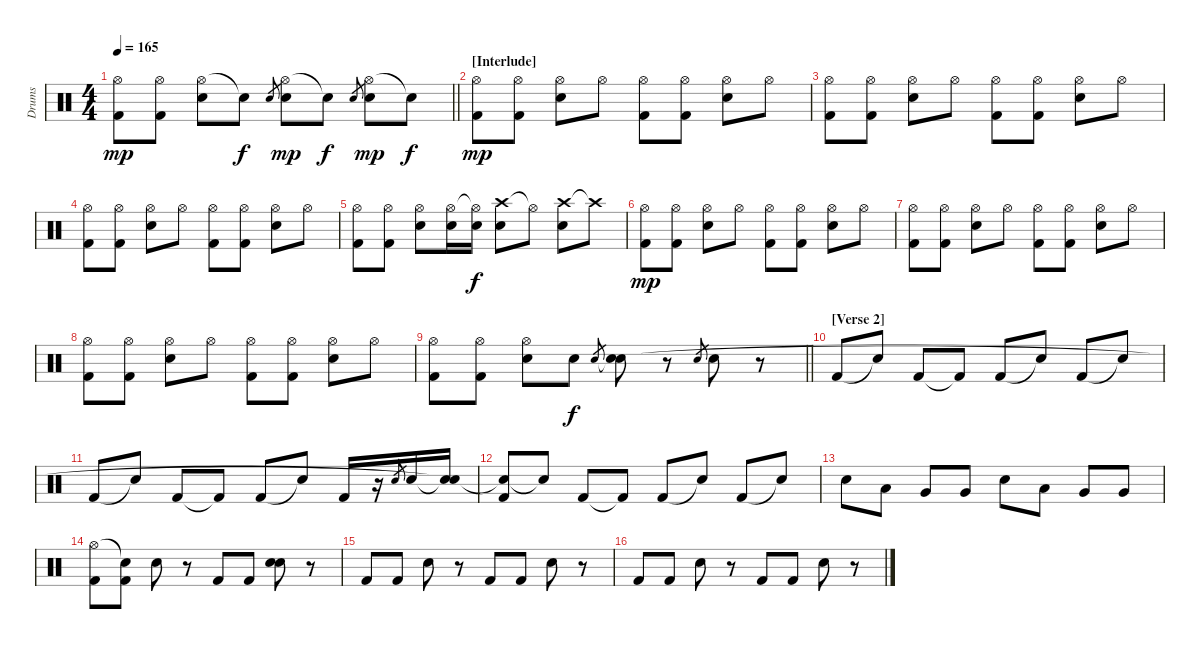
\track ("Drums" "Drums") {instrument percussion}
\staff {score}
\articulation defaults
\ts (4 4)
\tempo 165
\clef neutral
\barLineRight lightlight
\ks c
("Hi-Hat (open)" "Kick (hit) 2").8{dy mp} ("Hi-Hat (open)" "Kick (hit) 2").8 ("Hi-Hat (open)" "Electric Snare (hit)").8 "Snare (hit)"{t}.8{dy f} "Electric Snare (hit)".8{gr} ("Hi-Hat (open)" "Electric Snare (hit)").8{dy mp} "Snare (hit)"{t}.8{dy f} "Electric Snare (hit)".8{gr} ("Hi-Hat (open)" "Electric Snare (hit)").8{dy mp} "Snare (hit)"{t}.8{dy f} |
\section ("" "[Interlude]")
("Hi-Hat (open)" "Kick (hit) 2").8{dy mp} ("Hi-Hat (open)" "Kick (hit) 2").8 ("Hi-Hat (open)" "Electric Snare (hit)").8 "Hi-Hat (open)".8 ("Hi-Hat (open)" "Kick (hit) 2").8 ("Hi-Hat (open)" "Kick (hit) 2").8 ("Hi-Hat (open)" "Electric Snare (hit)").8 "Hi-Hat (open)".8 |
("Hi-Hat (open)" "Kick (hit) 2").8 ("Hi-Hat (open)" "Kick (hit) 2").8 ("Hi-Hat (open)" "Electric Snare (hit)").8 "Hi-Hat (open)".8 ("Hi-Hat (open)" "Kick (hit) 2").8 ("Hi-Hat (open)" "Kick (hit) 2").8 ("Hi-Hat (open)" "Electric Snare (hit)").8 "Hi-Hat (open)".8 |
("Hi-Hat (open)" "Kick (hit) 2").8 ("Hi-Hat (open)" "Kick (hit) 2").8 ("Hi-Hat (open)" "Electric Snare (hit)").8 "Hi-Hat (open)".8 ("Hi-Hat (open)" "Kick (hit) 2").8 ("Hi-Hat (open)" "Kick (hit) 2").8 ("Hi-Hat (open)" "Electric Snare (hit)").8 "Hi-Hat (open)".8 |
("Hi-Hat (open)" "Kick (hit) 2").8 ("Hi-Hat (open)" "Kick (hit) 2").8 ("Hi-Hat (open)" "Electric Snare (hit)").8 ("Hi-Hat (open)" "Electric Snare (hit)").16 ("Hi-Hat (open)"{t} "Electric Snare (hit)").16{dy f} ("Crash high (hit)" "Electric Snare (hit)").8 "Hi-Hat (open)"{t}.8 ("Crash high (hit)" "Electric Snare (hit)").8 "Crash high (hit)"{t}.8 |
("Hi-Hat (open)" "Kick (hit) 2").8{dy mp} ("Hi-Hat (open)" "Kick (hit) 2").8 ("Hi-Hat (open)" "Electric Snare (hit)").8 "Hi-Hat (open)".8 ("Hi-Hat (open)" "Kick (hit) 2").8 ("Hi-Hat (open)" "Kick (hit) 2").8 ("Hi-Hat (open)" "Electric Snare (hit)").8 "Hi-Hat (open)".8 |
("Hi-Hat (open)" "Kick (hit) 2").8 ("Hi-Hat (open)" "Kick (hit) 2").8 ("Hi-Hat (open)" "Electric Snare (hit)").8 "Hi-Hat (open)".8 ("Hi-Hat (open)" "Kick (hit) 2").8 ("Hi-Hat (open)" "Kick (hit) 2").8 ("Hi-Hat (open)" "Electric Snare (hit)").8 "Hi-Hat (open)".8 |
("Hi-Hat (open)" "Kick (hit) 2").8 ("Hi-Hat (open)" "Kick (hit) 2").8 ("Hi-Hat (open)" "Electric Snare (hit)").8 "Hi-Hat (open)".8 ("Hi-Hat (open)" "Kick (hit) 2").8 ("Hi-Hat (open)" "Kick (hit) 2").8 ("Hi-Hat (open)" "Electric Snare (hit)").8 "Hi-Hat (open)".8 |
\barLineRight lightlight
("Hi-Hat (open)" "Kick (hit) 2").8 ("Hi-Hat (open)" "Kick (hit) 2").8 ("Hi-Hat (open)" "Electric Snare (hit)").8 "Electric Snare (hit)".8{dy f} "Electric Snare (hit)".8{gr} ("Snare (hit)"{t} "Electric Snare (hit)").8 r.8 "Electric Snare (hit)".8{gr} "Electric Snare (hit)".8 r.8 |
\section ("" "[Verse 2]")
"Kick (hit) 2".8 "Snare (hit)"{t}.8 "Kick (hit) 2".8 "Kick (hit) 2"{t}.8 "Kick (hit) 2".8 "Snare (hit)"{t}.8 "Kick (hit) 2".8 "Snare (hit)"{t}.8 |
"Kick (hit) 2".8 "Snare (hit)"{t}.8 "Kick (hit) 2".8 "Kick (hit) 2"{t}.8 "Kick (hit) 2".8 "Snare (hit)"{t}.8 "Kick (hit) 2".16 r.16 "Electric Snare (hit)".8{gr} "Electric Snare (hit)".16 ("Electric Snare (hit)"{t} "Snare (hit)"{t}).16 |
("Electric Snare (hit)"{t} "Kick (hit) 2").8 "Snare (hit)"{t}.8 "Kick (hit) 2".8 "Kick (hit) 2"{t}.8 "Kick (hit) 2".8 "Snare (hit)"{t}.8 "Kick (hit) 2".8 "Snare (hit)"{t}.8 |
"Electric Snare (hit)".8 "Low Tom (hit)".8 "Very Low Tom (hit)".8 "Very Low Tom (hit)".8 "Electric Snare (hit)".8 "Low Tom (hit)".8 "Very Low Tom (hit)".8 "Very Low Tom (hit)".8 |
("Hi-Hat (open)" "Kick (hit) 2").8 ("Snare (hit)"{t} "Kick (hit) 2").8 "Electric Snare (hit)".8 r.8 "Kick (hit) 2".8 "Kick (hit) 2".8 ("Electric Snare (hit)" "Snare (hit)").8 r.8 |
"Kick (hit) 2".8 "Kick (hit) 2".8 "Electric Snare (hit)".8 r.8 "Kick (hit) 2".8 "Kick (hit) 2".8 "Electric Snare (hit)".8 r.8 |
"Kick (hit) 2".8 "Kick (hit) 2".8 "Electric Snare (hit)".8 r.8 "Kick (hit) 2".8 "Kick (hit) 2".8 "Electric Snare (hit)".8 r.8
